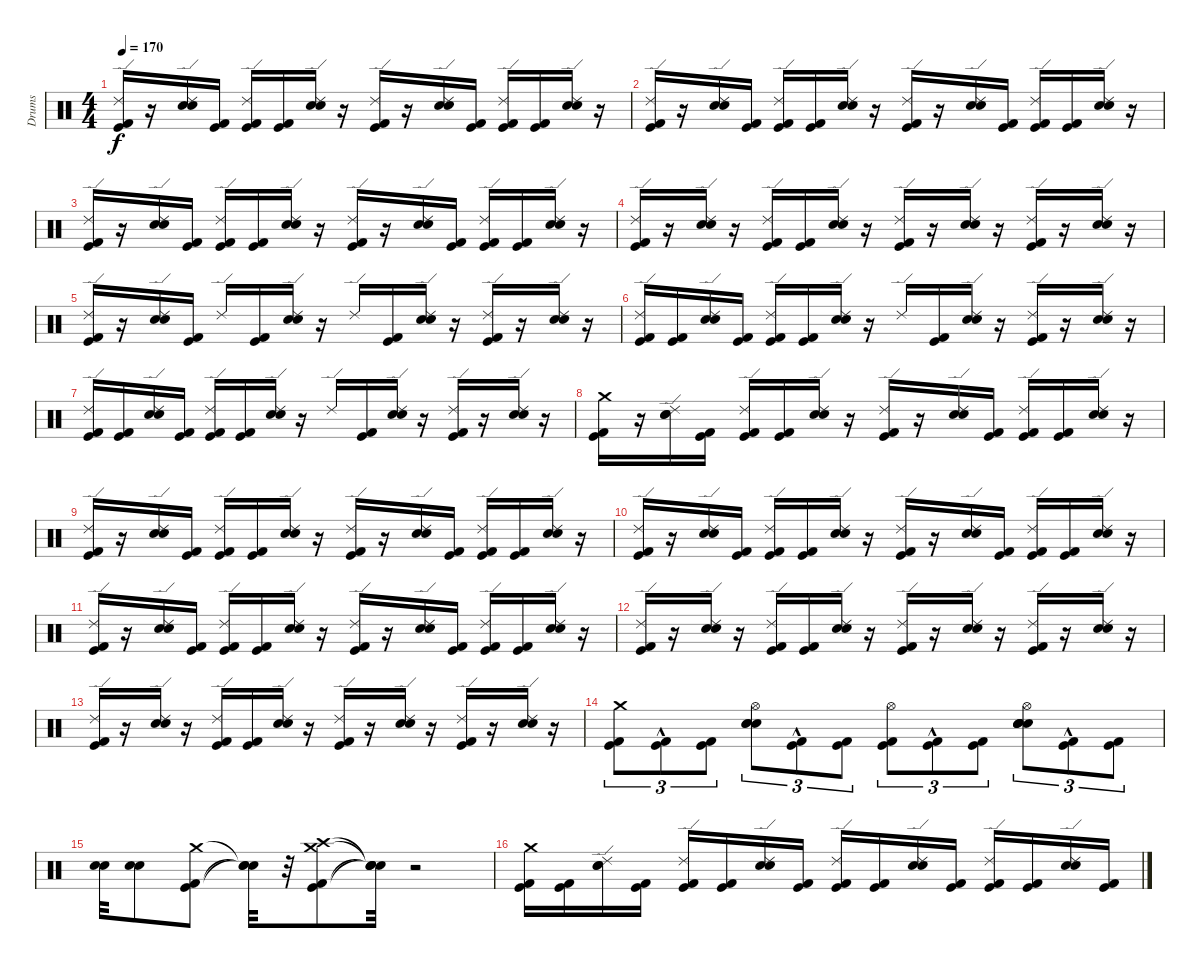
\track ("Drums" "Drums") {instrument percussion}
\staff {score}
\articulation defaults
\ts (4 4)
\tempo 170
\clef neutral
\ks c
("Ride (edge) 2" "Kick (hit) 2" "Kick (hit)").16{dy f} r.16 ("Ride (edge) 2" "Electric Snare (hit)" "Snare (hit) 2").16 ("Kick (hit) 2" "Kick (hit)").16 ("Ride (edge) 2" "Kick (hit) 2" "Kick (hit)").16 ("Kick (hit) 2" "Kick (hit)").16 ("Ride (edge) 2" "Electric Snare (hit)" "Snare (hit) 2").16 r.16 ("Ride (edge) 2" "Kick (hit) 2" "Kick (hit)").16 r.16 ("Ride (edge) 2" "Electric Snare (hit)" "Snare (hit) 2").16 ("Kick (hit) 2" "Kick (hit)").16 ("Ride (edge) 2" "Kick (hit) 2" "Kick (hit)").16 ("Kick (hit) 2" "Kick (hit)").16 ("Ride (edge) 2" "Electric Snare (hit)" "Snare (hit) 2").16 r.16 |
("Ride (edge) 2" "Kick (hit) 2" "Kick (hit)").16 r.16 ("Ride (edge) 2" "Electric Snare (hit)" "Snare (hit) 2").16 ("Kick (hit) 2" "Kick (hit)").16 ("Ride (edge) 2" "Kick (hit) 2" "Kick (hit)").16 ("Kick (hit) 2" "Kick (hit)").16 ("Ride (edge) 2" "Electric Snare (hit)" "Snare (hit) 2").16 r.16 ("Ride (edge) 2" "Kick (hit) 2" "Kick (hit)").16 r.16 ("Ride (edge) 2" "Electric Snare (hit)" "Snare (hit) 2").16 ("Kick (hit) 2" "Kick (hit)").16 ("Ride (edge) 2" "Kick (hit) 2" "Kick (hit)").16 ("Kick (hit) 2" "Kick (hit)").16 ("Ride (edge) 2" "Electric Snare (hit)" "Snare (hit) 2").16 r.16 |
("Ride (edge) 2" "Kick (hit) 2" "Kick (hit)").16 r.16 ("Ride (edge) 2" "Electric Snare (hit)" "Snare (hit) 2").16 ("Kick (hit) 2" "Kick (hit)").16 ("Ride (edge) 2" "Kick (hit) 2" "Kick (hit)").16 ("Kick (hit) 2" "Kick (hit)").16 ("Ride (edge) 2" "Electric Snare (hit)" "Snare (hit) 2").16 r.16 ("Ride (edge) 2" "Kick (hit) 2" "Kick (hit)").16 r.16 ("Ride (edge) 2" "Electric Snare (hit)" "Snare (hit) 2").16 ("Kick (hit) 2" "Kick (hit)").16 ("Ride (edge) 2" "Kick (hit) 2" "Kick (hit)").16 ("Kick (hit) 2" "Kick (hit)").16 ("Ride (edge) 2" "Electric Snare (hit)" "Snare (hit) 2").16 r.16 |
("Kick (hit) 2" "Ride (edge) 2" "Kick (hit)").16 r.16 ("Electric Snare (hit)" "Snare (hit) 2" "Ride (edge) 2").16 r.16 ("Kick (hit) 2" "Kick (hit)" "Ride (edge) 2").16 ("Kick (hit) 2" "Kick (hit)").16 ("Electric Snare (hit)" "Snare (hit) 2" "Ride (edge) 2").16 r.16 ("Kick (hit) 2" "Kick (hit)" "Ride (edge) 2").16 r.16 ("Electric Snare (hit)" "Snare (hit) 2" "Ride (edge) 2").16 r.16 ("Kick (hit) 2" "Kick (hit)" "Ride (edge) 2").16 r.16 ("Electric Snare (hit)" "Snare (hit) 2" "Ride (edge) 2").16 r.16 |
("Ride (edge) 2" "Kick (hit) 2" "Kick (hit)").16 r.16 ("Ride (edge) 2" "Snare (hit) 2" "Electric Snare (hit)").16 ("Kick (hit) 2" "Kick (hit)").16 "Ride (edge) 2".16 ("Kick (hit) 2" "Kick (hit)").16 ("Ride (edge) 2" "Electric Snare (hit)" "Snare (hit) 2").16 r.16 "Ride (edge) 2".16 ("Kick (hit) 2" "Kick (hit)").16 ("Ride (edge) 2" "Electric Snare (hit)" "Snare (hit) 2").16 r.16 ("Ride (edge) 2" "Kick (hit) 2" "Kick (hit)").16 r.16 ("Ride (edge) 2" "Electric Snare (hit)" "Snare (hit) 2").16 r.16 |
("Ride (edge) 2" "Kick (hit) 2" "Kick (hit)").16 ("Kick (hit) 2" "Kick (hit)").16 ("Ride (edge) 2" "Electric Snare (hit)" "Snare (hit) 2").16 ("Kick (hit) 2" "Kick (hit)").16 ("Ride (edge) 2" "Kick (hit) 2" "Kick (hit)").16 ("Kick (hit) 2" "Kick (hit)").16 ("Ride (edge) 2" "Electric Snare (hit)" "Snare (hit) 2").16 r.16 "Ride (edge) 2".16 ("Kick (hit) 2" "Kick (hit)").16 ("Ride (edge) 2" "Electric Snare (hit)" "Snare (hit) 2").16 r.16 ("Ride (edge) 2" "Kick (hit) 2" "Kick (hit)").16 r.16 ("Ride (edge) 2" "Electric Snare (hit)" "Snare (hit) 2").16 r.16 |
("Ride (edge) 2" "Kick (hit) 2" "Kick (hit)").16 ("Kick (hit) 2" "Kick (hit)").16 ("Ride (edge) 2" "Electric Snare (hit)" "Snare (hit) 2").16 ("Kick (hit) 2" "Kick (hit)").16 ("Ride (edge) 2" "Kick (hit) 2" "Kick (hit)").16 ("Kick (hit) 2" "Kick (hit)").16 ("Ride (edge) 2" "Electric Snare (hit)" "Snare (hit) 2").16 r.16 "Ride (edge) 2".16 ("Kick (hit) 2" "Kick (hit)").16 ("Ride (edge) 2" "Electric Snare (hit)" "Snare (hit) 2").16 r.16 ("Ride (edge) 2" "Kick (hit) 2" "Kick (hit)").16 r.16 ("Ride (edge) 2" "Electric Snare (hit)" "Snare (hit) 2").16 r.16 |
("Crash medium (hit)" "Kick (hit) 2" "Kick (hit)").16 r.16 ("Ride (edge) 2" "Electric Snare (hit)" "Snare (hit) 2").16 ("Kick (hit) 2" "Kick (hit)").16 ("Ride (edge) 2" "Kick (hit) 2" "Kick (hit)").16 ("Kick (hit) 2" "Kick (hit)").16 ("Ride (edge) 2" "Electric Snare (hit)" "Snare (hit) 2").16 r.16 ("Ride (edge) 2" "Kick (hit) 2" "Kick (hit)").16 r.16 ("Ride (edge) 2" "Electric Snare (hit)" "Snare (hit) 2").16 ("Kick (hit) 2" "Kick (hit)").16 ("Ride (edge) 2" "Kick (hit) 2" "Kick (hit)").16 ("Kick (hit) 2" "Kick (hit)").16 ("Ride (edge) 2" "Electric Snare (hit)" "Snare (hit) 2").16 r.16 |
("Ride (edge) 2" "Kick (hit) 2" "Kick (hit)").16 r.16 ("Ride (edge) 2" "Electric Snare (hit)" "Snare (hit) 2").16 ("Kick (hit) 2" "Kick (hit)").16 ("Ride (edge) 2" "Kick (hit) 2" "Kick (hit)").16 ("Kick (hit) 2" "Kick (hit)").16 ("Ride (edge) 2" "Electric Snare (hit)" "Snare (hit) 2").16 r.16 ("Ride (edge) 2" "Kick (hit) 2" "Kick (hit)").16 r.16 ("Ride (edge) 2" "Electric Snare (hit)" "Snare (hit) 2").16 ("Kick (hit) 2" "Kick (hit)").16 ("Ride (edge) 2" "Kick (hit) 2" "Kick (hit)").16 ("Kick (hit) 2" "Kick (hit)").16 ("Ride (edge) 2" "Electric Snare (hit)" "Snare (hit) 2").16 r.16 |
("Ride (edge) 2" "Kick (hit) 2" "Kick (hit)").16 r.16 ("Ride (edge) 2" "Electric Snare (hit)" "Snare (hit) 2").16 ("Kick (hit) 2" "Kick (hit)").16 ("Ride (edge) 2" "Kick (hit) 2" "Kick (hit)").16 ("Kick (hit) 2" "Kick (hit)").16 ("Ride (edge) 2" "Electric Snare (hit)" "Snare (hit) 2").16 r.16 ("Ride (edge) 2" "Kick (hit) 2" "Kick (hit)").16 r.16 ("Ride (edge) 2" "Electric Snare (hit)" "Snare (hit) 2").16 ("Kick (hit) 2" "Kick (hit)").16 ("Ride (edge) 2" "Kick (hit) 2" "Kick (hit)").16 ("Kick (hit) 2" "Kick (hit)").16 ("Ride (edge) 2" "Electric Snare (hit)" "Snare (hit) 2").16 r.16 |
("Ride (edge) 2" "Kick (hit) 2" "Kick (hit)").16 r.16 ("Ride (edge) 2" "Electric Snare (hit)" "Snare (hit) 2").16 ("Kick (hit) 2" "Kick (hit)").16 ("Ride (edge) 2" "Kick (hit) 2" "Kick (hit)").16 ("Kick (hit) 2" "Kick (hit)").16 ("Ride (edge) 2" "Electric Snare (hit)" "Snare (hit) 2").16 r.16 ("Ride (edge) 2" "Kick (hit) 2" "Kick (hit)").16 r.16 ("Ride (edge) 2" "Electric Snare (hit)" "Snare (hit) 2").16 ("Kick (hit) 2" "Kick (hit)").16 ("Ride (edge) 2" "Kick (hit) 2" "Kick (hit)").16 ("Kick (hit) 2" "Kick (hit)").16 ("Ride (edge) 2" "Electric Snare (hit)" "Snare (hit) 2").16 r.16 |
("Kick (hit) 2" "Ride (edge) 2" "Kick (hit)").16 r.16 ("Electric Snare (hit)" "Snare (hit) 2" "Ride (edge) 2").16 r.16 ("Kick (hit) 2" "Kick (hit)" "Ride (edge) 2").16 ("Kick (hit) 2" "Kick (hit)").16 ("Electric Snare (hit)" "Snare (hit) 2" "Ride (edge) 2").16 r.16 ("Kick (hit) 2" "Kick (hit)" "Ride (edge) 2").16 r.16 ("Electric Snare (hit)" "Snare (hit) 2" "Ride (edge) 2").16 r.16 ("Kick (hit) 2" "Kick (hit)" "Ride (edge) 2").16 r.16 ("Electric Snare (hit)" "Snare (hit) 2" "Ride (edge) 2").16 r.16 |
("Kick (hit) 2" "Ride (edge) 2" "Kick (hit)").16 r.16 ("Electric Snare (hit)" "Snare (hit) 2" "Ride (edge) 2").16 r.16 ("Kick (hit) 2" "Kick (hit)" "Ride (edge) 2").16 ("Kick (hit) 2" "Kick (hit)").16 ("Electric Snare (hit)" "Snare (hit) 2" "Ride (edge) 2").16 r.16 ("Kick (hit) 2" "Kick (hit)" "Ride (edge) 2").16 r.16 ("Electric Snare (hit)" "Snare (hit) 2" "Ride (edge) 2").16 r.16 ("Kick (hit) 2" "Kick (hit)" "Ride (edge) 2").16 r.16 ("Electric Snare (hit)" "Snare (hit) 2" "Ride (edge) 2").16 r.16 |
("Crash medium (hit)" "Kick (hit) 2" "Kick (hit)").8{tu (3 2)} ("Kick (hit) 2"{hac} "Kick (hit)"{hac}).8{tu (3 2)} ("Kick (hit) 2" "Kick (hit)").8{tu (3 2)} ("Electric Snare (hit)" "Snare (hit) 2" "Hi-Hat (open)" "Snare (hit)").8{tu (3 2)} ("Kick (hit) 2"{hac} "Kick (hit)"{hac}).8{tu (3 2)} ("Kick (hit) 2" "Kick (hit)").8{tu (3 2)} ("Hi-Hat (open)" "Kick (hit) 2" "Kick (hit)").8{tu (3 2)} ("Kick (hit) 2"{hac} "Kick (hit)"{hac}).8{tu (3 2)} ("Kick (hit) 2" "Kick (hit)").8{tu (3 2)} ("Hi-Hat (open)" "Electric Snare (hit)" "Snare (hit) 2" "Snare (hit)" "Snare (hit)").8{tu (3 2)} ("Kick (hit) 2"{hac} "Kick (hit)"{hac}).8{tu (3 2)} ("Kick (hit) 2" "Kick (hit)").8{tu (3 2)} |
("Electric Snare (hit)" "Snare (hit) 2").32 ("Electric Snare (hit)" "Snare (hit) 2").8 ("Crash medium (hit)" "Kick (hit) 2" "Kick (hit)").8 ("Snare (hit)"{t} "Snare (hit)"{t} "Snare (hit)"{t}).32 r.32 ("Crash medium (hit)" "Crash high (hit)" "Kick (hit) 2" "Kick (hit)").8 ("Snare (hit)"{t} "Snare (hit)"{t} "Snare (hit)"{t} "Snare (hit)"{t}).32 r.2 |
("Crash medium (hit)" "Kick (hit) 2" "Kick (hit)").16 ("Kick (hit) 2" "Kick (hit)").16 ("Electric Snare (hit)" "Snare (hit) 2" "Ride (edge) 2").16 ("Kick (hit) 2" "Kick (hit)").16 ("Ride (edge) 2" "Kick (hit) 2" "Kick (hit)").16 ("Kick (hit) 2" "Kick (hit)").16 ("Electric Snare (hit)" "Snare (hit) 2" "Ride (edge) 2").16 ("Kick (hit) 2" "Kick (hit)").16 ("Ride (edge) 2" "Kick (hit) 2" "Kick (hit)").16 ("Kick (hit) 2" "Kick (hit)").16 ("Electric Snare (hit)" "Snare (hit) 2" "Ride (edge) 2").16 ("Kick (hit) 2" "Kick (hit)").16 ("Ride (edge) 2" "Kick (hit) 2" "Kick (hit)").16 ("Kick (hit) 2" "Kick (hit)").16 ("Electric Snare (hit)" "Snare (hit) 2" "Ride (edge) 2").16 ("Kick (hit) 2" "Kick (hit)").16
